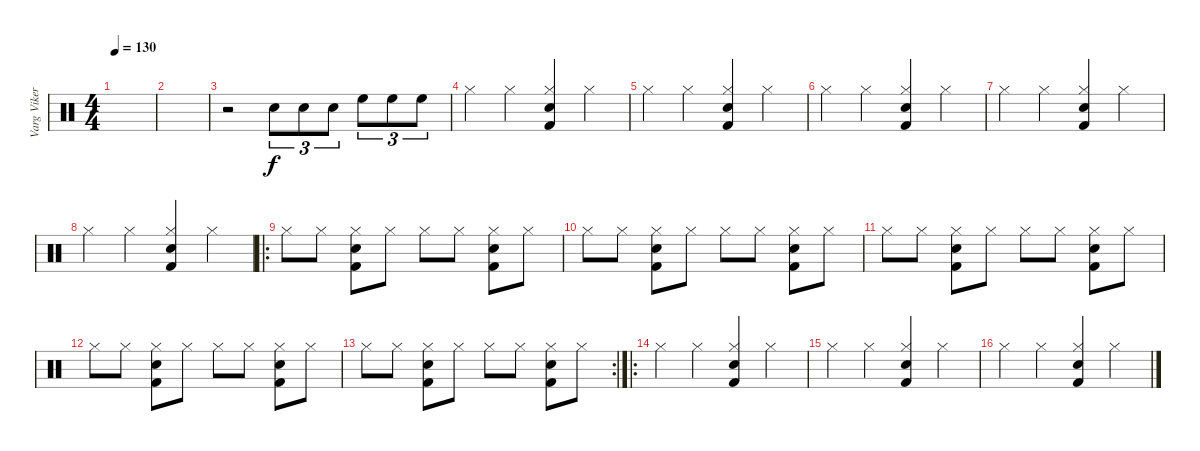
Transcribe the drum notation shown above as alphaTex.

\track ("Varg Vikernes (Drums)" "Varg Viker") {instrument percussion}
\staff {score}
\articulation defaults
\ts (4 4)
\tempo 130
\clef neutral
\ks c
|
|
r.2 "Electric Snare (hit)".8{tu (3 2)} "Electric Snare (hit)".8{tu (3 2)} "Electric Snare (hit)".8{tu (3 2)} "High Floor Tom (hit)".8{tu (3 2)} "High Floor Tom (hit)".8{tu (3 2)} "High Floor Tom (hit)".8{tu (3 2)} |
"Hi-Hat (closed)".4 "Hi-Hat (closed)".4 ("Hi-Hat (closed)" "Kick (hit) 2" "Electric Snare (hit)").4 "Hi-Hat (closed)".4 |
"Hi-Hat (closed)".4 "Hi-Hat (closed)".4 ("Hi-Hat (closed)" "Kick (hit) 2" "Electric Snare (hit)").4 "Hi-Hat (closed)".4 |
"Hi-Hat (closed)".4 "Hi-Hat (closed)".4 ("Hi-Hat (closed)" "Kick (hit) 2" "Electric Snare (hit)").4 "Hi-Hat (closed)".4 |
"Hi-Hat (closed)".4 "Hi-Hat (closed)".4 ("Hi-Hat (closed)" "Kick (hit) 2" "Electric Snare (hit)").4 "Hi-Hat (closed)".4 |
"Hi-Hat (closed)".4 "Hi-Hat (closed)".4 ("Hi-Hat (closed)" "Kick (hit) 2" "Electric Snare (hit)").4 "Hi-Hat (closed)".4 |
\ro "Hi-Hat (closed)".8 "Hi-Hat (closed)".8
("Hi-Hat (closed)" "Kick (hit) 2" "Electric Snare (hit)").8 "Hi-Hat (closed)".8 "Hi-Hat (closed)".8 "Hi-Hat (closed)".8 ("Hi-Hat (closed)" "Kick (hit) 2" "Electric Snare (hit)").8 "Hi-Hat (closed)".8 |
"Hi-Hat (closed)".8 "Hi-Hat (closed)".8 ("Hi-Hat (closed)" "Kick (hit) 2" "Electric Snare (hit)").8 "Hi-Hat (closed)".8 "Hi-Hat (closed)".8 "Hi-Hat (closed)".8 ("Hi-Hat (closed)" "Kick (hit) 2" "Electric Snare (hit)").8 "Hi-Hat (closed)".8 |
"Hi-Hat (closed)".8 "Hi-Hat (closed)".8 ("Hi-Hat (closed)" "Kick (hit) 2" "Electric Snare (hit)").8 "Hi-Hat (closed)".8 "Hi-Hat (closed)".8 "Hi-Hat (closed)".8 ("Hi-Hat (closed)" "Kick (hit) 2" "Electric Snare (hit)").8 "Hi-Hat (closed)".8 |
"Hi-Hat (closed)".8 "Hi-Hat (closed)".8 ("Hi-Hat (closed)" "Kick (hit) 2" "Electric Snare (hit)").8 "Hi-Hat (closed)".8 "Hi-Hat (closed)".8 "Hi-Hat (closed)".8 ("Hi-Hat (closed)" "Kick (hit) 2" "Electric Snare (hit)").8 "Hi-Hat (closed)".8 |
\rc 2 "Hi-Hat (closed)".8 "Hi-Hat (closed)".8
("Hi-Hat (closed)" "Kick (hit) 2" "Electric Snare (hit)").8 "Hi-Hat (closed)".8 "Hi-Hat (closed)".8 "Hi-Hat (closed)".8 ("Hi-Hat (closed)" "Kick (hit) 2" "Electric Snare (hit)").8 "Hi-Hat (closed)".8 |
\ro "Hi-Hat (closed)".4 "Hi-Hat (closed)".4
("Hi-Hat (closed)" "Kick (hit) 2" "Electric Snare (hit)").4 "Hi-Hat (closed)".4 |
"Hi-Hat (closed)".4 "Hi-Hat (closed)".4 ("Hi-Hat (closed)" "Kick (hit) 2" "Electric Snare (hit)").4 "Hi-Hat (closed)".4 |
"Hi-Hat (closed)".4 "Hi-Hat (closed)".4 ("Hi-Hat (closed)" "Kick (hit) 2" "Electric Snare (hit)").4 "Hi-Hat (closed)".4
